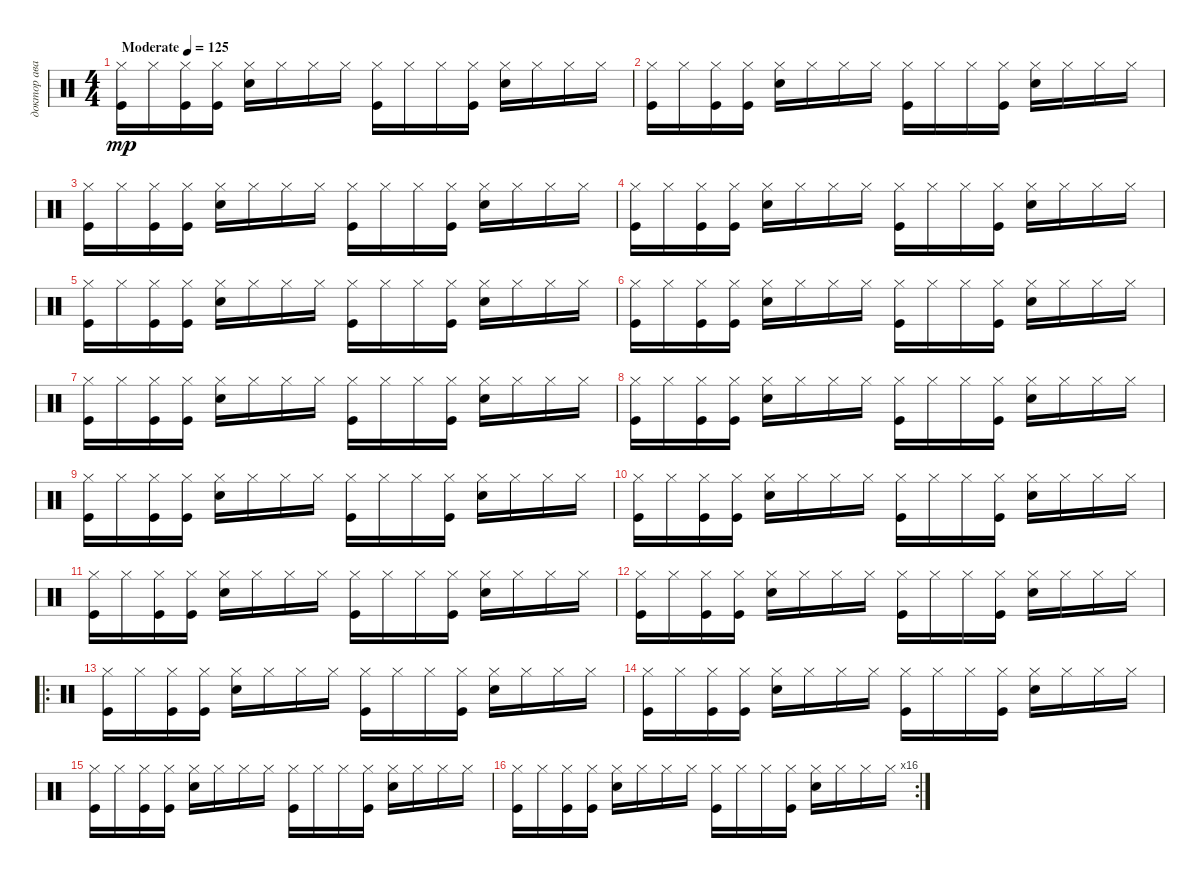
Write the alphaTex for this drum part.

\track ("доктор аваланч" "доктор ава") {instrument percussion}
\staff {score}
\articulation defaults
\ts (4 4)
\tempo (125 "Moderate")
\clef neutral
\ks c
("Hi-Hat (closed)" "Kick (hit)").16{dy mp} "Hi-Hat (closed)".16 ("Hi-Hat (closed)" "Kick (hit)").16 ("Hi-Hat (closed)" "Kick (hit)").16 ("Hi-Hat (closed)" "Snare (hit) 2").16 "Hi-Hat (closed)".16 "Hi-Hat (closed)".16 "Hi-Hat (closed)".16 ("Hi-Hat (closed)" "Kick (hit)").16 "Hi-Hat (closed)".16 "Hi-Hat (closed)".16 ("Hi-Hat (closed)" "Kick (hit)").16 ("Hi-Hat (closed)" "Snare (hit) 2").16 "Hi-Hat (closed)".16 "Hi-Hat (closed)".16 "Hi-Hat (closed)".16 |
("Hi-Hat (closed)" "Kick (hit)").16 "Hi-Hat (closed)".16 ("Hi-Hat (closed)" "Kick (hit)").16 ("Hi-Hat (closed)" "Kick (hit)").16 ("Hi-Hat (closed)" "Snare (hit) 2").16 "Hi-Hat (closed)".16 "Hi-Hat (closed)".16 "Hi-Hat (closed)".16 ("Hi-Hat (closed)" "Kick (hit)").16 "Hi-Hat (closed)".16 "Hi-Hat (closed)".16 ("Hi-Hat (closed)" "Kick (hit)").16 ("Hi-Hat (closed)" "Snare (hit) 2").16 "Hi-Hat (closed)".16 "Hi-Hat (closed)".16 "Hi-Hat (closed)".16 |
("Hi-Hat (closed)" "Kick (hit)").16 "Hi-Hat (closed)".16 ("Hi-Hat (closed)" "Kick (hit)").16 ("Hi-Hat (closed)" "Kick (hit)").16 ("Hi-Hat (closed)" "Snare (hit) 2").16 "Hi-Hat (closed)".16 "Hi-Hat (closed)".16 "Hi-Hat (closed)".16 ("Hi-Hat (closed)" "Kick (hit)").16 "Hi-Hat (closed)".16 "Hi-Hat (closed)".16 ("Hi-Hat (closed)" "Kick (hit)").16 ("Hi-Hat (closed)" "Snare (hit) 2").16 "Hi-Hat (closed)".16 "Hi-Hat (closed)".16 "Hi-Hat (closed)".16 |
("Hi-Hat (closed)" "Kick (hit)").16 "Hi-Hat (closed)".16 ("Hi-Hat (closed)" "Kick (hit)").16 ("Hi-Hat (closed)" "Kick (hit)").16 ("Hi-Hat (closed)" "Snare (hit) 2").16 "Hi-Hat (closed)".16 "Hi-Hat (closed)".16 "Hi-Hat (closed)".16 ("Hi-Hat (closed)" "Kick (hit)").16 "Hi-Hat (closed)".16 "Hi-Hat (closed)".16 ("Hi-Hat (closed)" "Kick (hit)").16 ("Hi-Hat (closed)" "Snare (hit) 2").16 "Hi-Hat (closed)".16 "Hi-Hat (closed)".16 "Hi-Hat (closed)".16 |
("Hi-Hat (closed)" "Kick (hit)").16 "Hi-Hat (closed)".16 ("Hi-Hat (closed)" "Kick (hit)").16 ("Hi-Hat (closed)" "Kick (hit)").16 ("Hi-Hat (closed)" "Snare (hit) 2").16 "Hi-Hat (closed)".16 "Hi-Hat (closed)".16 "Hi-Hat (closed)".16 ("Hi-Hat (closed)" "Kick (hit)").16 "Hi-Hat (closed)".16 "Hi-Hat (closed)".16 ("Hi-Hat (closed)" "Kick (hit)").16 ("Hi-Hat (closed)" "Snare (hit) 2").16 "Hi-Hat (closed)".16 "Hi-Hat (closed)".16 "Hi-Hat (closed)".16 |
("Hi-Hat (closed)" "Kick (hit)").16 "Hi-Hat (closed)".16 ("Hi-Hat (closed)" "Kick (hit)").16 ("Hi-Hat (closed)" "Kick (hit)").16 ("Hi-Hat (closed)" "Snare (hit) 2").16 "Hi-Hat (closed)".16 "Hi-Hat (closed)".16 "Hi-Hat (closed)".16 ("Hi-Hat (closed)" "Kick (hit)").16 "Hi-Hat (closed)".16 "Hi-Hat (closed)".16 ("Hi-Hat (closed)" "Kick (hit)").16 ("Hi-Hat (closed)" "Snare (hit) 2").16 "Hi-Hat (closed)".16 "Hi-Hat (closed)".16 "Hi-Hat (closed)".16 |
("Hi-Hat (closed)" "Kick (hit)").16 "Hi-Hat (closed)".16 ("Hi-Hat (closed)" "Kick (hit)").16 ("Hi-Hat (closed)" "Kick (hit)").16 ("Hi-Hat (closed)" "Snare (hit) 2").16 "Hi-Hat (closed)".16 "Hi-Hat (closed)".16 "Hi-Hat (closed)".16 ("Hi-Hat (closed)" "Kick (hit)").16 "Hi-Hat (closed)".16 "Hi-Hat (closed)".16 ("Hi-Hat (closed)" "Kick (hit)").16 ("Hi-Hat (closed)" "Snare (hit) 2").16 "Hi-Hat (closed)".16 "Hi-Hat (closed)".16 "Hi-Hat (closed)".16 |
("Hi-Hat (closed)" "Kick (hit)").16 "Hi-Hat (closed)".16 ("Hi-Hat (closed)" "Kick (hit)").16 ("Hi-Hat (closed)" "Kick (hit)").16 ("Hi-Hat (closed)" "Snare (hit) 2").16 "Hi-Hat (closed)".16 "Hi-Hat (closed)".16 "Hi-Hat (closed)".16 ("Hi-Hat (closed)" "Kick (hit)").16 "Hi-Hat (closed)".16 "Hi-Hat (closed)".16 ("Hi-Hat (closed)" "Kick (hit)").16 ("Hi-Hat (closed)" "Snare (hit) 2").16 "Hi-Hat (closed)".16 "Hi-Hat (closed)".16 "Hi-Hat (closed)".16 |
("Hi-Hat (closed)" "Kick (hit)").16 "Hi-Hat (closed)".16 ("Hi-Hat (closed)" "Kick (hit)").16 ("Hi-Hat (closed)" "Kick (hit)").16 ("Hi-Hat (closed)" "Snare (hit) 2").16 "Hi-Hat (closed)".16 "Hi-Hat (closed)".16 "Hi-Hat (closed)".16 ("Hi-Hat (closed)" "Kick (hit)").16 "Hi-Hat (closed)".16 "Hi-Hat (closed)".16 ("Hi-Hat (closed)" "Kick (hit)").16 ("Hi-Hat (closed)" "Snare (hit) 2").16 "Hi-Hat (closed)".16 "Hi-Hat (closed)".16 "Hi-Hat (closed)".16 |
("Hi-Hat (closed)" "Kick (hit)").16 "Hi-Hat (closed)".16 ("Hi-Hat (closed)" "Kick (hit)").16 ("Hi-Hat (closed)" "Kick (hit)").16 ("Hi-Hat (closed)" "Snare (hit) 2").16 "Hi-Hat (closed)".16 "Hi-Hat (closed)".16 "Hi-Hat (closed)".16 ("Hi-Hat (closed)" "Kick (hit)").16 "Hi-Hat (closed)".16 "Hi-Hat (closed)".16 ("Hi-Hat (closed)" "Kick (hit)").16 ("Hi-Hat (closed)" "Snare (hit) 2").16 "Hi-Hat (closed)".16 "Hi-Hat (closed)".16 "Hi-Hat (closed)".16 |
("Hi-Hat (closed)" "Kick (hit)").16 "Hi-Hat (closed)".16 ("Hi-Hat (closed)" "Kick (hit)").16 ("Hi-Hat (closed)" "Kick (hit)").16 ("Hi-Hat (closed)" "Snare (hit) 2").16 "Hi-Hat (closed)".16 "Hi-Hat (closed)".16 "Hi-Hat (closed)".16 ("Hi-Hat (closed)" "Kick (hit)").16 "Hi-Hat (closed)".16 "Hi-Hat (closed)".16 ("Hi-Hat (closed)" "Kick (hit)").16 ("Hi-Hat (closed)" "Snare (hit) 2").16 "Hi-Hat (closed)".16 "Hi-Hat (closed)".16 "Hi-Hat (closed)".16 |
("Hi-Hat (closed)" "Kick (hit)").16 "Hi-Hat (closed)".16 ("Hi-Hat (closed)" "Kick (hit)").16 ("Hi-Hat (closed)" "Kick (hit)").16 ("Hi-Hat (closed)" "Snare (hit) 2").16 "Hi-Hat (closed)".16 "Hi-Hat (closed)".16 "Hi-Hat (closed)".16 ("Hi-Hat (closed)" "Kick (hit)").16 "Hi-Hat (closed)".16 "Hi-Hat (closed)".16 ("Hi-Hat (closed)" "Kick (hit)").16 ("Hi-Hat (closed)" "Snare (hit) 2").16 "Hi-Hat (closed)".16 "Hi-Hat (closed)".16 "Hi-Hat (closed)".16 |
\ro
("Hi-Hat (closed)" "Kick (hit)").16 "Hi-Hat (closed)".16 ("Hi-Hat (closed)" "Kick (hit)").16 ("Hi-Hat (closed)" "Kick (hit)").16 ("Hi-Hat (closed)" "Snare (hit) 2").16 "Hi-Hat (closed)".16 "Hi-Hat (closed)".16 "Hi-Hat (closed)".16 ("Hi-Hat (closed)" "Kick (hit)").16 "Hi-Hat (closed)".16 "Hi-Hat (closed)".16 ("Hi-Hat (closed)" "Kick (hit)").16 ("Hi-Hat (closed)" "Snare (hit) 2").16 "Hi-Hat (closed)".16 "Hi-Hat (closed)".16 "Hi-Hat (closed)".16 |
("Hi-Hat (closed)" "Kick (hit)").16 "Hi-Hat (closed)".16 ("Hi-Hat (closed)" "Kick (hit)").16 ("Hi-Hat (closed)" "Kick (hit)").16 ("Hi-Hat (closed)" "Snare (hit) 2").16 "Hi-Hat (closed)".16 "Hi-Hat (closed)".16 "Hi-Hat (closed)".16 ("Hi-Hat (closed)" "Kick (hit)").16 "Hi-Hat (closed)".16 "Hi-Hat (closed)".16 ("Hi-Hat (closed)" "Kick (hit)").16 ("Hi-Hat (closed)" "Snare (hit) 2").16 "Hi-Hat (closed)".16 "Hi-Hat (closed)".16 "Hi-Hat (closed)".16 |
("Hi-Hat (closed)" "Kick (hit)").16 "Hi-Hat (closed)".16 ("Hi-Hat (closed)" "Kick (hit)").16 ("Hi-Hat (closed)" "Kick (hit)").16 ("Hi-Hat (closed)" "Snare (hit) 2").16 "Hi-Hat (closed)".16 "Hi-Hat (closed)".16 "Hi-Hat (closed)".16 ("Hi-Hat (closed)" "Kick (hit)").16 "Hi-Hat (closed)".16 "Hi-Hat (closed)".16 ("Hi-Hat (closed)" "Kick (hit)").16 ("Hi-Hat (closed)" "Snare (hit) 2").16 "Hi-Hat (closed)".16 "Hi-Hat (closed)".16 "Hi-Hat (closed)".16 |
\rc 16
("Hi-Hat (closed)" "Kick (hit)").16 "Hi-Hat (closed)".16 ("Hi-Hat (closed)" "Kick (hit)").16 ("Hi-Hat (closed)" "Kick (hit)").16 ("Hi-Hat (closed)" "Snare (hit) 2").16 "Hi-Hat (closed)".16 "Hi-Hat (closed)".16 "Hi-Hat (closed)".16 ("Hi-Hat (closed)" "Kick (hit)").16 "Hi-Hat (closed)".16 "Hi-Hat (closed)".16 ("Hi-Hat (closed)" "Kick (hit)").16 ("Hi-Hat (closed)" "Snare (hit) 2").16 "Hi-Hat (closed)".16 "Hi-Hat (closed)".16 "Hi-Hat (closed)".16
